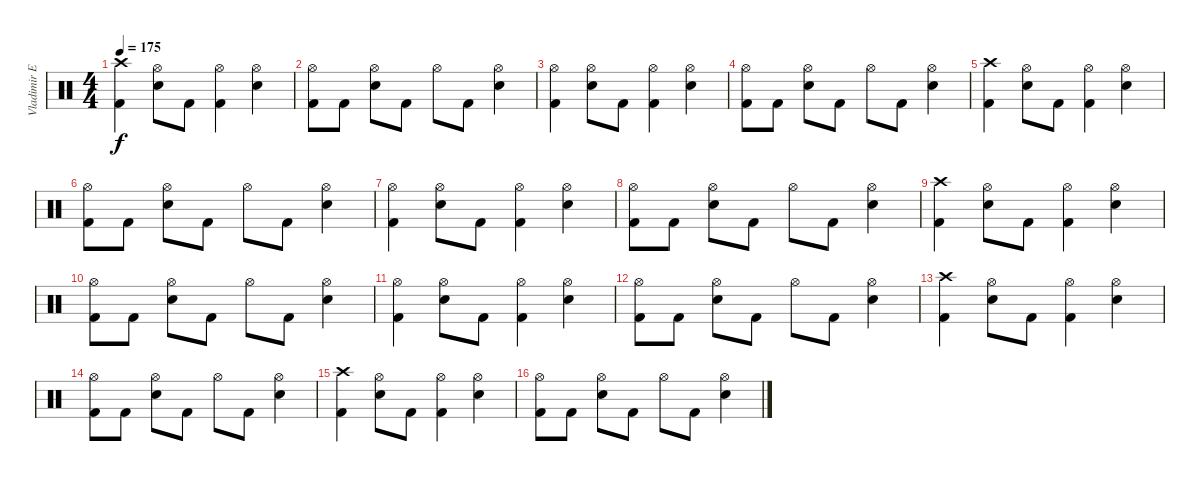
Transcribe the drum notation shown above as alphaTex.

\track ("Vladimir Ermakoff" "Vladimir E") {instrument percussion}
\staff {score}
\articulation defaults
\ts (4 4)
\tempo 175
\clef neutral
\ks c
("Crash high (hit)" "Kick (hit) 2").4{dy f} ("Hi-Hat (open)" "Electric Snare (hit)").8 "Kick (hit) 2".8 ("Hi-Hat (open)" "Kick (hit) 2").4 ("Hi-Hat (open)" "Electric Snare (hit)").4 |
("Hi-Hat (open)" "Kick (hit) 2").8 "Kick (hit) 2".8 ("Hi-Hat (open)" "Electric Snare (hit)").8 "Kick (hit) 2".8 "Hi-Hat (open)".8 "Kick (hit) 2".8 ("Hi-Hat (open)" "Electric Snare (hit)").4 |
("Hi-Hat (open)" "Kick (hit) 2").4 ("Hi-Hat (open)" "Electric Snare (hit)").8 "Kick (hit) 2".8 ("Hi-Hat (open)" "Kick (hit) 2").4 ("Hi-Hat (open)" "Electric Snare (hit)").4 |
("Hi-Hat (open)" "Kick (hit) 2").8 "Kick (hit) 2".8 ("Hi-Hat (open)" "Electric Snare (hit)").8 "Kick (hit) 2".8 "Hi-Hat (open)".8 "Kick (hit) 2".8 ("Hi-Hat (open)" "Electric Snare (hit)").4 |
("Crash high (hit)" "Kick (hit) 2").4 ("Hi-Hat (open)" "Electric Snare (hit)").8 "Kick (hit) 2".8 ("Hi-Hat (open)" "Kick (hit) 2").4 ("Hi-Hat (open)" "Electric Snare (hit)").4 |
("Hi-Hat (open)" "Kick (hit) 2").8 "Kick (hit) 2".8 ("Hi-Hat (open)" "Electric Snare (hit)").8 "Kick (hit) 2".8 "Hi-Hat (open)".8 "Kick (hit) 2".8 ("Hi-Hat (open)" "Electric Snare (hit)").4 |
("Hi-Hat (open)" "Kick (hit) 2").4 ("Hi-Hat (open)" "Electric Snare (hit)").8 "Kick (hit) 2".8 ("Hi-Hat (open)" "Kick (hit) 2").4 ("Hi-Hat (open)" "Electric Snare (hit)").4 |
("Hi-Hat (open)" "Kick (hit) 2").8 "Kick (hit) 2".8 ("Hi-Hat (open)" "Electric Snare (hit)").8 "Kick (hit) 2".8 "Hi-Hat (open)".8 "Kick (hit) 2".8 ("Hi-Hat (open)" "Electric Snare (hit)").4 |
("Crash high (hit)" "Kick (hit) 2").4 ("Hi-Hat (open)" "Electric Snare (hit)").8 "Kick (hit) 2".8 ("Hi-Hat (open)" "Kick (hit) 2").4 ("Hi-Hat (open)" "Electric Snare (hit)").4 |
("Hi-Hat (open)" "Kick (hit) 2").8 "Kick (hit) 2".8 ("Hi-Hat (open)" "Electric Snare (hit)").8 "Kick (hit) 2".8 "Hi-Hat (open)".8 "Kick (hit) 2".8 ("Hi-Hat (open)" "Electric Snare (hit)").4 |
("Hi-Hat (open)" "Kick (hit) 2").4 ("Hi-Hat (open)" "Electric Snare (hit)").8 "Kick (hit) 2".8 ("Hi-Hat (open)" "Kick (hit) 2").4 ("Hi-Hat (open)" "Electric Snare (hit)").4 |
("Hi-Hat (open)" "Kick (hit) 2").8 "Kick (hit) 2".8 ("Hi-Hat (open)" "Electric Snare (hit)").8 "Kick (hit) 2".8 "Hi-Hat (open)".8 "Kick (hit) 2".8 ("Hi-Hat (open)" "Electric Snare (hit)").4 |
("Crash high (hit)" "Kick (hit) 2").4 ("Hi-Hat (open)" "Electric Snare (hit)").8 "Kick (hit) 2".8 ("Hi-Hat (open)" "Kick (hit) 2").4 ("Hi-Hat (open)" "Electric Snare (hit)").4 |
("Hi-Hat (open)" "Kick (hit) 2").8 "Kick (hit) 2".8 ("Hi-Hat (open)" "Electric Snare (hit)").8 "Kick (hit) 2".8 "Hi-Hat (open)".8 "Kick (hit) 2".8 ("Hi-Hat (open)" "Electric Snare (hit)").4 |
("Crash high (hit)" "Kick (hit) 2").4 ("Hi-Hat (open)" "Electric Snare (hit)").8 "Kick (hit) 2".8 ("Hi-Hat (open)" "Kick (hit) 2").4 ("Hi-Hat (open)" "Electric Snare (hit)").4 |
("Hi-Hat (open)" "Kick (hit) 2").8 "Kick (hit) 2".8 ("Hi-Hat (open)" "Electric Snare (hit)").8 "Kick (hit) 2".8 "Hi-Hat (open)".8 "Kick (hit) 2".8 ("Hi-Hat (open)" "Electric Snare (hit)").4
